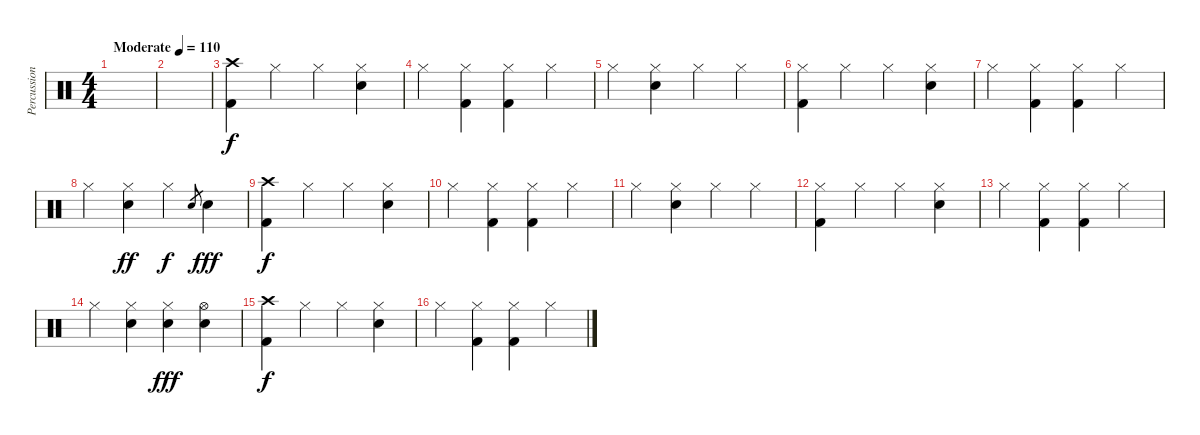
\track ("Percussion" "Percussion") {instrument percussion}
\staff {score}
\articulation defaults
\ts (4 4)
\tempo (110 "Moderate")
\clef neutral
\ks c
|
|
("Crash high (hit)" "Kick (hit) 2").4 "Hi-Hat (closed)".4 "Hi-Hat (closed)".4 ("Hi-Hat (closed)" "Electric Snare (hit)").4 |
"Hi-Hat (closed)".4 ("Hi-Hat (closed)" "Kick (hit) 2").4 ("Hi-Hat (closed)" "Kick (hit) 2").4 "Hi-Hat (closed)".4 |
"Hi-Hat (closed)".4 ("Hi-Hat (closed)" "Electric Snare (hit)").4 "Hi-Hat (closed)".4 "Hi-Hat (closed)".4 |
("Hi-Hat (closed)" "Kick (hit) 2").4 "Hi-Hat (closed)".4 "Hi-Hat (closed)".4 ("Hi-Hat (closed)" "Electric Snare (hit)").4 |
"Hi-Hat (closed)".4 ("Hi-Hat (closed)" "Kick (hit) 2").4 ("Hi-Hat (closed)" "Kick (hit) 2").4 "Hi-Hat (closed)".4 |
"Hi-Hat (closed)".4 ("Hi-Hat (closed)" "Electric Snare (hit)").4{dy ff} "Hi-Hat (closed)".4{dy f} "Electric Snare (hit)".8{gr} "Electric Snare (hit)".4{dy fff} |
("Crash high (hit)" "Kick (hit) 2").4{dy f} "Hi-Hat (closed)".4 "Hi-Hat (closed)".4 ("Hi-Hat (closed)" "Electric Snare (hit)").4 |
"Hi-Hat (closed)".4 ("Hi-Hat (closed)" "Kick (hit) 2").4 ("Hi-Hat (closed)" "Kick (hit) 2").4 "Hi-Hat (closed)".4 |
"Hi-Hat (closed)".4 ("Hi-Hat (closed)" "Electric Snare (hit)").4 "Hi-Hat (closed)".4 "Hi-Hat (closed)".4 |
("Hi-Hat (closed)" "Kick (hit) 2").4 "Hi-Hat (closed)".4 "Hi-Hat (closed)".4 ("Hi-Hat (closed)" "Electric Snare (hit)").4 |
"Hi-Hat (closed)".4 ("Hi-Hat (closed)" "Kick (hit) 2").4 ("Hi-Hat (closed)" "Kick (hit) 2").4 "Hi-Hat (closed)".4 |
"Hi-Hat (closed)".4 ("Hi-Hat (closed)" "Electric Snare (hit)").4 ("Hi-Hat (closed)" "Electric Snare (hit)").4{dy fff} ("Hi-Hat (open)" "Electric Snare (hit)").4 |
("Crash high (hit)" "Kick (hit) 2").4{dy f} "Hi-Hat (closed)".4 "Hi-Hat (closed)".4 ("Hi-Hat (closed)" "Electric Snare (hit)").4 |
"Hi-Hat (closed)".4 ("Hi-Hat (closed)" "Kick (hit) 2").4 ("Hi-Hat (closed)" "Kick (hit) 2").4 "Hi-Hat (closed)".4
